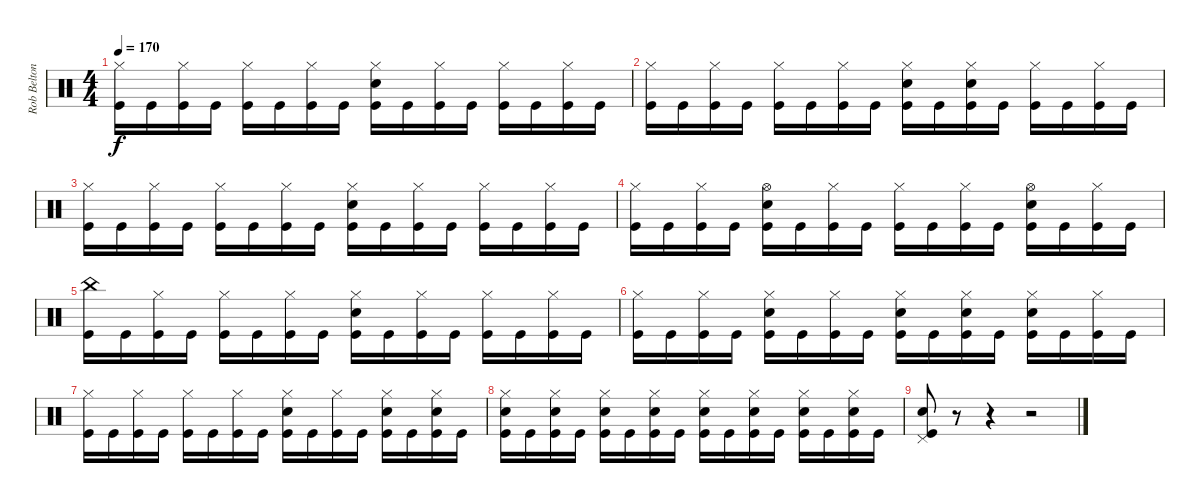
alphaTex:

\track ("Rob Belton" "Rob Belton") {instrument percussion}
\staff {score}
\articulation defaults
\ts (4 4)
\tempo 170
\clef neutral
\ks c
("Hi-Hat (closed)" "Kick (hit)").16{dy f} "Kick (hit)".16 ("Hi-Hat (closed)" "Kick (hit)").16 "Kick (hit)".16 ("Hi-Hat (closed)" "Kick (hit)").16 "Kick (hit)".16 ("Hi-Hat (closed)" "Kick (hit)").16 "Kick (hit)".16 ("Hi-Hat (closed)" "Snare (hit) 2" "Kick (hit)").16 "Kick (hit)".16 ("Hi-Hat (closed)" "Kick (hit)").16 "Kick (hit)".16 ("Hi-Hat (closed)" "Kick (hit)").16 "Kick (hit)".16 ("Hi-Hat (closed)" "Kick (hit)").16 "Kick (hit)".16 |
("Hi-Hat (closed)" "Kick (hit)").16 "Kick (hit)".16 ("Hi-Hat (closed)" "Kick (hit)").16 "Kick (hit)".16 ("Hi-Hat (closed)" "Kick (hit)").16 "Kick (hit)".16 ("Hi-Hat (closed)" "Kick (hit)").16 "Kick (hit)".16 ("Hi-Hat (closed)" "Snare (hit) 2" "Kick (hit)").16 "Kick (hit)".16 ("Hi-Hat (closed)" "Snare (hit) 2" "Kick (hit)").16 "Kick (hit)".16 ("Hi-Hat (closed)" "Kick (hit)").16 "Kick (hit)".16 ("Hi-Hat (closed)" "Kick (hit)").16 "Kick (hit)".16 |
("Hi-Hat (closed)" "Kick (hit)").16 "Kick (hit)".16 ("Hi-Hat (closed)" "Kick (hit)").16 "Kick (hit)".16 ("Hi-Hat (closed)" "Kick (hit)").16 "Kick (hit)".16 ("Hi-Hat (closed)" "Kick (hit)").16 "Kick (hit)".16 ("Hi-Hat (closed)" "Snare (hit) 2" "Kick (hit)").16 "Kick (hit)".16 ("Hi-Hat (closed)" "Kick (hit)").16 "Kick (hit)".16 ("Hi-Hat (closed)" "Kick (hit)").16 "Kick (hit)".16 ("Hi-Hat (closed)" "Kick (hit)").16 "Kick (hit)".16 |
("Hi-Hat (closed)" "Kick (hit)").16 "Kick (hit)".16 ("Hi-Hat (closed)" "Kick (hit)").16 "Kick (hit)".16 ("Hi-Hat (open)" "Snare (hit) 2" "Kick (hit)").16 "Kick (hit)".16 ("Hi-Hat (closed)" "Kick (hit)").16 "Kick (hit)".16 ("Hi-Hat (closed)" "Kick (hit)").16 "Kick (hit)".16 ("Hi-Hat (closed)" "Kick (hit)").16 "Kick (hit)".16 ("Hi-Hat (open)" "Snare (hit) 2" "Kick (hit)").16 "Kick (hit)".16 ("Hi-Hat (closed)" "Kick (hit)").16 "Kick (hit)".16 |
("China (hit)" "Kick (hit)").16 "Kick (hit)".16 ("Hi-Hat (closed)" "Kick (hit)").16 "Kick (hit)".16 ("Hi-Hat (closed)" "Kick (hit)").16 "Kick (hit)".16 ("Hi-Hat (closed)" "Kick (hit)").16 "Kick (hit)".16 ("Hi-Hat (closed)" "Snare (hit) 2" "Kick (hit)").16 "Kick (hit)".16 ("Hi-Hat (closed)" "Kick (hit)").16 "Kick (hit)".16 ("Hi-Hat (closed)" "Kick (hit)").16 "Kick (hit)".16 ("Hi-Hat (closed)" "Kick (hit)").16 "Kick (hit)".16 |
("Hi-Hat (closed)" "Kick (hit)").16 "Kick (hit)".16 ("Hi-Hat (closed)" "Kick (hit)").16 "Kick (hit)".16 ("Hi-Hat (closed)" "Snare (hit) 2" "Kick (hit)").16 "Kick (hit)".16 ("Hi-Hat (closed)" "Kick (hit)").16 "Kick (hit)".16 ("Hi-Hat (closed)" "Snare (hit) 2" "Kick (hit)").16 "Kick (hit)".16 ("Hi-Hat (closed)" "Snare (hit) 2" "Kick (hit)").16 "Kick (hit)".16 ("Hi-Hat (closed)" "Snare (hit) 2" "Kick (hit)").16 "Kick (hit)".16 ("Hi-Hat (closed)" "Kick (hit)").16 "Kick (hit)".16 |
("Hi-Hat (closed)" "Kick (hit)").16 "Kick (hit)".16 ("Hi-Hat (closed)" "Kick (hit)").16 "Kick (hit)".16 ("Hi-Hat (closed)" "Kick (hit)").16 "Kick (hit)".16 ("Hi-Hat (closed)" "Kick (hit)").16 "Kick (hit)".16 ("Hi-Hat (closed)" "Snare (hit) 2" "Kick (hit)").16 "Kick (hit)".16 ("Hi-Hat (closed)" "Kick (hit)").16 "Kick (hit)".16 ("Hi-Hat (closed)" "Snare (hit) 2" "Kick (hit)").16 "Kick (hit)".16 ("Hi-Hat (closed)" "Snare (hit) 2" "Kick (hit)").16 "Kick (hit)".16 |
("Hi-Hat (closed)" "Snare (hit) 2" "Kick (hit)").16 "Kick (hit)".16 ("Hi-Hat (closed)" "Snare (hit) 2" "Kick (hit)").16 "Kick (hit)".16 ("Hi-Hat (closed)" "Snare (hit) 2" "Kick (hit)").16 "Kick (hit)".16 ("Hi-Hat (closed)" "Snare (hit) 2" "Kick (hit)").16 "Kick (hit)".16 ("Hi-Hat (closed)" "Snare (hit) 2" "Kick (hit)").16 "Kick (hit)".16 ("Hi-Hat (closed)" "Snare (hit) 2" "Kick (hit)").16 "Kick (hit)".16 ("Hi-Hat (closed)" "Snare (hit) 2" "Kick (hit)").16 "Kick (hit)".16 ("Hi-Hat (closed)" "Snare (hit) 2" "Kick (hit)").16 "Kick (hit)".16 |
("Pedal Hi-Hat (hit)" "Snare (hit) 2" "Kick (hit)").8 r.8 r.4 r.2
